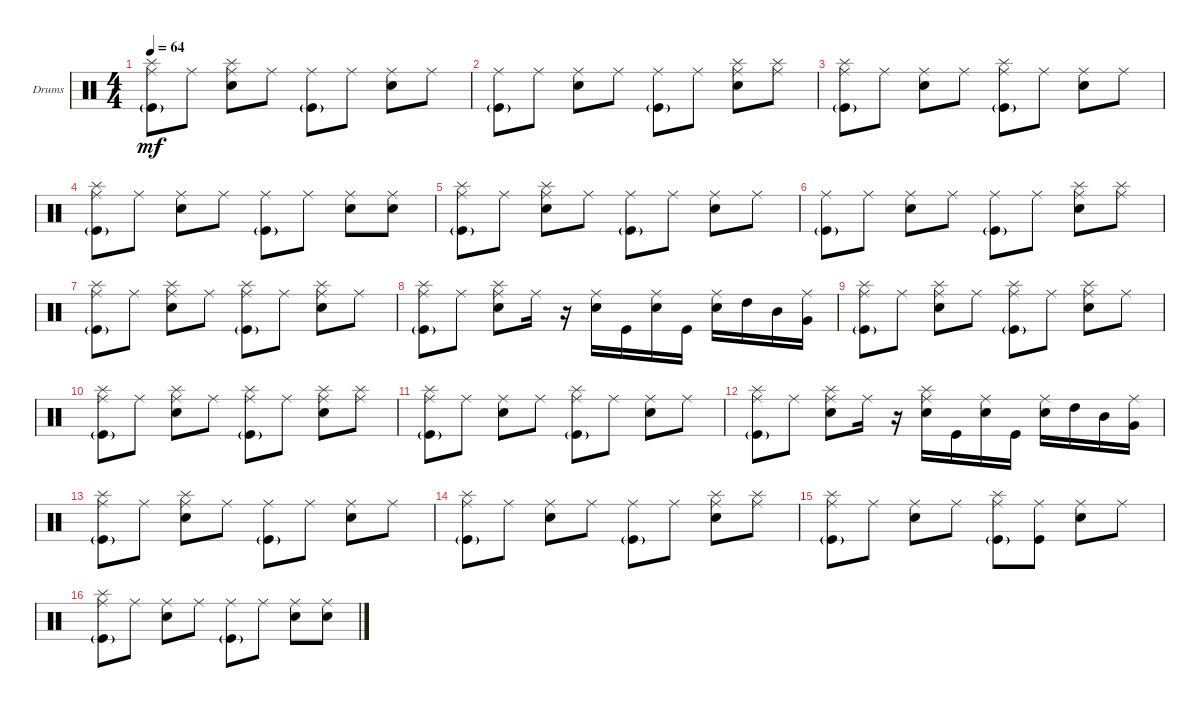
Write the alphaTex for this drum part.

\defaultSystemsLayout 4
\bracketExtendMode groupsimilarinstruments
\firstSystemTrackNameOrientation horizontal
\otherSystemsTrackNameOrientation horizontal
\track ("Drumkit" "Drums") {instrument percussion}
\staff {score}
\articulation defaults
\ts (4 4)
\tempo 64
\clef neutral
\ks c
("Ride (middle)" "Splash (hit)" "Kick (hit)"{g}).8{dy mf} "Ride (middle)".8 ("Ride (middle)" "Snare (hit) 2" "Splash (hit)").8 "Ride (middle)".8 ("Ride (middle)" "Kick (hit)"{g}).8 "Ride (middle)".8 ("Ride (middle)" "Snare (hit) 2").8 "Ride (middle)".8 |
("Ride (middle)" "Kick (hit)"{g}).8 "Ride (middle)".8 ("Ride (middle)" "Snare (hit) 2").8 "Ride (middle)".8 ("Ride (middle)" "Kick (hit)"{g}).8 "Ride (middle)".8 ("Ride (middle)" "Snare (hit) 2" "Splash (hit)").8 ("Ride (middle)" "Splash (hit)").8 |
("Ride (middle)" "Splash (hit)" "Kick (hit)"{g}).8 "Ride (middle)".8 ("Ride (middle)" "Snare (hit) 2").8 "Ride (middle)".8 ("Ride (middle)" "Kick (hit)"{g} "Splash (hit)").8 "Ride (middle)".8 ("Ride (middle)" "Snare (hit) 2").8 "Ride (middle)".8 |
("Ride (middle)" "Kick (hit)"{g} "Splash (hit)").8 "Ride (middle)".8 ("Ride (middle)" "Snare (hit) 2").8 "Ride (middle)".8 ("Ride (middle)" "Kick (hit)"{g}).8 "Ride (middle)".8 ("Ride (middle)" "Snare (hit) 2").8 ("Ride (middle)" "Snare (hit) 2").8 |
("Ride (middle)" "Splash (hit)" "Kick (hit)"{g}).8 "Ride (middle)".8 ("Ride (middle)" "Snare (hit) 2" "Splash (hit)").8 "Ride (middle)".8 ("Ride (middle)" "Kick (hit)"{g}).8 "Ride (middle)".8 ("Ride (middle)" "Snare (hit) 2").8 "Ride (middle)".8 |
("Ride (middle)" "Kick (hit)"{g}).8 "Ride (middle)".8 ("Ride (middle)" "Snare (hit) 2").8 "Ride (middle)".8 ("Ride (middle)" "Kick (hit)"{g}).8 "Ride (middle)".8 ("Ride (middle)" "Snare (hit) 2" "Splash (hit)").8 ("Ride (middle)" "Splash (hit)").8 |
("Ride (middle)" "Splash (hit)" "Kick (hit)"{g}).8 "Ride (middle)".8 ("Ride (middle)" "Snare (hit) 2" "Splash (hit)").8 "Ride (middle)".8 ("Ride (middle)" "Kick (hit)"{g} "Splash (hit)").8 "Ride (middle)".8 ("Ride (middle)" "Snare (hit) 2" "Splash (hit)").8 "Ride (middle)".8 |
("Ride (middle)" "Kick (hit)"{g} "Splash (hit)").8 "Ride (middle)".8 ("Ride (middle)" "Snare (hit) 2" "Splash (hit)").8 "Ride (middle)".16 r.16 ("Snare (hit) 2" "Ride (middle)").16 "Kick (hit)".16 ("Snare (hit) 2" "Ride (middle)").16 "Kick (hit)".16 ("Ride (middle)" "Snare (hit) 2").16 "High Tom (hit)".16 "Mid Tom (hit)".16 ("Ride (middle)" "Very Low Tom (hit)").16 |
("Ride (middle)" "Splash (hit)" "Kick (hit)"{g}).8 "Ride (middle)".8 ("Ride (middle)" "Snare (hit) 2" "Splash (hit)").8 "Ride (middle)".8 ("Ride (middle)" "Kick (hit)"{g} "Splash (hit)").8 "Ride (middle)".8 ("Ride (middle)" "Snare (hit) 2" "Splash (hit)").8 "Ride (middle)".8 |
("Ride (middle)" "Splash (hit)" "Kick (hit)"{g}).8 "Ride (middle)".8 ("Ride (middle)" "Snare (hit) 2" "Splash (hit)").8 "Ride (middle)".8 ("Ride (middle)" "Kick (hit)"{g} "Splash (hit)").8 "Ride (middle)".8 ("Ride (middle)" "Snare (hit) 2" "Splash (hit)").8 ("Ride (middle)" "Splash (hit)").8 |
("Ride (middle)" "Splash (hit)" "Kick (hit)"{g}).8 "Ride (middle)".8 ("Ride (middle)" "Snare (hit) 2").8 "Ride (middle)".8 ("Ride (middle)" "Kick (hit)"{g} "Splash (hit)").8 "Ride (middle)".8 ("Ride (middle)" "Snare (hit) 2").8 "Ride (middle)".8 |
("Ride (middle)" "Kick (hit)"{g} "Splash (hit)").8 "Ride (middle)".8 ("Ride (middle)" "Snare (hit) 2" "Splash (hit)").8 "Ride (middle)".16 r.16 ("Snare (hit) 2" "Ride (middle)" "Splash (hit)").16 "Kick (hit)".16 ("Snare (hit) 2" "Ride (middle)").16 "Kick (hit)".16 ("Ride (middle)" "Snare (hit) 2").16 "High Tom (hit)".16 "Mid Tom (hit)".16 ("Ride (middle)" "Very Low Tom (hit)").16 |
("Ride (middle)" "Splash (hit)" "Kick (hit)"{g}).8 "Ride (middle)".8 ("Ride (middle)" "Snare (hit) 2" "Splash (hit)").8 "Ride (middle)".8 ("Ride (middle)" "Kick (hit)"{g}).8 "Ride (middle)".8 ("Ride (middle)" "Snare (hit) 2").8 "Ride (middle)".8 |
("Ride (middle)" "Kick (hit)"{g} "Splash (hit)").8 "Ride (middle)".8 ("Ride (middle)" "Snare (hit) 2").8 "Ride (middle)".8 ("Ride (middle)" "Kick (hit)"{g}).8 "Ride (middle)".8 ("Ride (middle)" "Snare (hit) 2" "Splash (hit)").8 ("Ride (middle)" "Splash (hit)").8 |
("Ride (middle)" "Splash (hit)" "Kick (hit)"{g}).8 "Ride (middle)".8 ("Ride (middle)" "Snare (hit) 2").8 "Ride (middle)".8 ("Ride (middle)" "Kick (hit)"{g} "Splash (hit)").8 ("Ride (middle)" "Kick (hit)").8 ("Ride (middle)" "Snare (hit) 2").8 "Ride (middle)".8 |
("Ride (middle)" "Kick (hit)"{g} "Splash (hit)").8 "Ride (middle)".8 ("Ride (middle)" "Snare (hit) 2").8 "Ride (middle)".8 ("Ride (middle)" "Kick (hit)"{g}).8 "Ride (middle)".8 ("Ride (middle)" "Snare (hit) 2").8 ("Ride (middle)" "Snare (hit) 2").8
